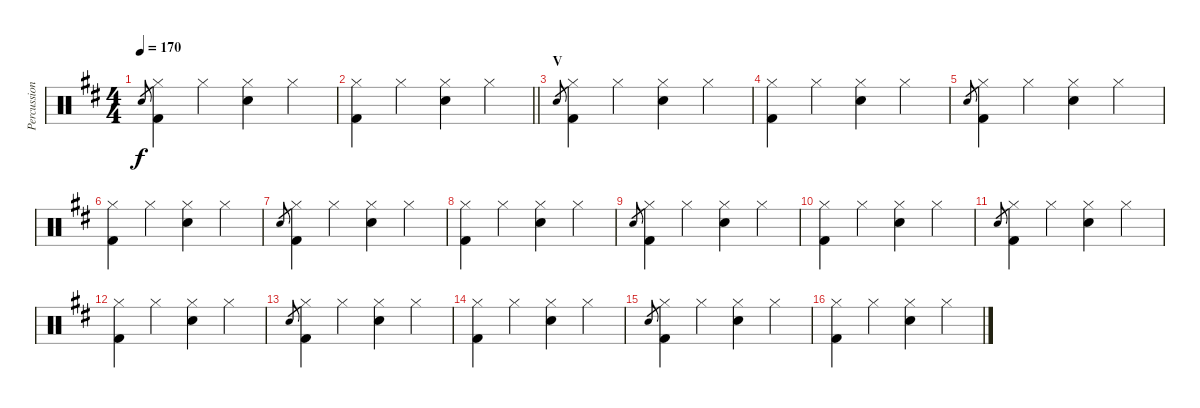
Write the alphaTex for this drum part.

\track ("Percussion [Nick Mason]" "Percussion") {instrument percussion}
\staff {score}
\articulation defaults
\ts (4 4)
\tempo 170
\clef neutral
\ks d "Snare (hit) 2".8{gr dy f}
("Hi-Hat (closed)" "Kick (hit) 2").4 "Hi-Hat (closed)".4 ("Hi-Hat (closed)" "Snare (hit) 2").4 "Hi-Hat (closed)".4 |
\barLineRight lightlight
("Hi-Hat (closed)" "Kick (hit) 2").4 "Hi-Hat (closed)".4 ("Hi-Hat (closed)" "Snare (hit) 2").4 "Hi-Hat (closed)".4 |
\section ("" "V")
"Snare (hit) 2".8{gr} ("Hi-Hat (closed)" "Kick (hit) 2").4 "Hi-Hat (closed)".4 ("Hi-Hat (closed)" "Snare (hit) 2").4 "Hi-Hat (closed)".4 |
("Hi-Hat (closed)" "Kick (hit) 2").4 "Hi-Hat (closed)".4 ("Hi-Hat (closed)" "Snare (hit) 2").4 "Hi-Hat (closed)".4 |
"Snare (hit) 2".8{gr} ("Hi-Hat (closed)" "Kick (hit) 2").4 "Hi-Hat (closed)".4 ("Hi-Hat (closed)" "Snare (hit) 2").4 "Hi-Hat (closed)".4 |
("Hi-Hat (closed)" "Kick (hit) 2").4 "Hi-Hat (closed)".4 ("Hi-Hat (closed)" "Snare (hit) 2").4 "Hi-Hat (closed)".4 |
"Snare (hit) 2".8{gr} ("Hi-Hat (closed)" "Kick (hit) 2").4 "Hi-Hat (closed)".4 ("Hi-Hat (closed)" "Snare (hit) 2").4 "Hi-Hat (closed)".4 |
("Hi-Hat (closed)" "Kick (hit) 2").4 "Hi-Hat (closed)".4 ("Hi-Hat (closed)" "Snare (hit) 2").4 "Hi-Hat (closed)".4 |
"Snare (hit) 2".8{gr} ("Hi-Hat (closed)" "Kick (hit) 2").4 "Hi-Hat (closed)".4 ("Hi-Hat (closed)" "Snare (hit) 2").4 "Hi-Hat (closed)".4 |
("Hi-Hat (closed)" "Kick (hit) 2").4 "Hi-Hat (closed)".4 ("Hi-Hat (closed)" "Snare (hit) 2").4 "Hi-Hat (closed)".4 |
"Snare (hit) 2".8{gr} ("Hi-Hat (closed)" "Kick (hit) 2").4 "Hi-Hat (closed)".4 ("Hi-Hat (closed)" "Snare (hit) 2").4 "Hi-Hat (closed)".4 |
("Hi-Hat (closed)" "Kick (hit) 2").4 "Hi-Hat (closed)".4 ("Hi-Hat (closed)" "Snare (hit) 2").4 "Hi-Hat (closed)".4 |
"Snare (hit) 2".8{gr} ("Hi-Hat (closed)" "Kick (hit) 2").4 "Hi-Hat (closed)".4 ("Hi-Hat (closed)" "Snare (hit) 2").4 "Hi-Hat (closed)".4 |
("Hi-Hat (closed)" "Kick (hit) 2").4 "Hi-Hat (closed)".4 ("Hi-Hat (closed)" "Snare (hit) 2").4 "Hi-Hat (closed)".4 |
"Snare (hit) 2".8{gr} ("Hi-Hat (closed)" "Kick (hit) 2").4 "Hi-Hat (closed)".4 ("Hi-Hat (closed)" "Snare (hit) 2").4 "Hi-Hat (closed)".4 |
("Hi-Hat (closed)" "Kick (hit) 2").4 "Hi-Hat (closed)".4 ("Hi-Hat (closed)" "Snare (hit) 2").4 "Hi-Hat (closed)".4
